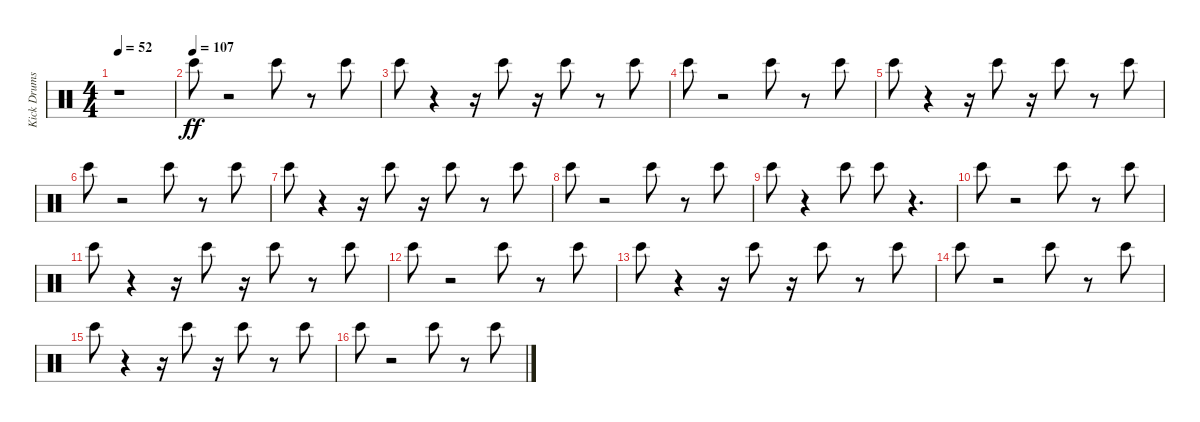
\track ("Kick Drums" "Kick Drums") {instrument percussion}
\staff {score}
\articulation defaults
\ts (4 4)
\tempo 52
\clef neutral
\ks c
r.1{dy ff} |
\tempo (107)
"Bongo High (hit)".8 r.2 "Bongo High (hit)".8 r.8 "Bongo High (hit)".8 |
"Bongo High (hit)".8 r.4 r.16 "Bongo High (hit)".8 r.16 "Bongo High (hit)".8 r.8 "Bongo High (hit)".8 |
"Bongo High (hit)".8 r.2 "Bongo High (hit)".8 r.8 "Bongo High (hit)".8 |
"Bongo High (hit)".8 r.4 r.16 "Bongo High (hit)".8 r.16 "Bongo High (hit)".8 r.8 "Bongo High (hit)".8 |
"Bongo High (hit)".8 r.2 "Bongo High (hit)".8 r.8 "Bongo High (hit)".8 |
"Bongo High (hit)".8 r.4 r.16 "Bongo High (hit)".8 r.16 "Bongo High (hit)".8 r.8 "Bongo High (hit)".8 |
"Bongo High (hit)".8 r.2 "Bongo High (hit)".8 r.8 "Bongo High (hit)".8 |
"Bongo High (hit)".8 r.4 "Bongo High (hit)".8 "Bongo High (hit)".8 r.4{d} |
"Bongo High (hit)".8 r.2 "Bongo High (hit)".8 r.8 "Bongo High (hit)".8 |
"Bongo High (hit)".8 r.4 r.16 "Bongo High (hit)".8 r.16 "Bongo High (hit)".8 r.8 "Bongo High (hit)".8 |
"Bongo High (hit)".8 r.2 "Bongo High (hit)".8 r.8 "Bongo High (hit)".8 |
"Bongo High (hit)".8 r.4 r.16 "Bongo High (hit)".8 r.16 "Bongo High (hit)".8 r.8 "Bongo High (hit)".8 |
"Bongo High (hit)".8 r.2 "Bongo High (hit)".8 r.8 "Bongo High (hit)".8 |
"Bongo High (hit)".8 r.4 r.16 "Bongo High (hit)".8 r.16 "Bongo High (hit)".8 r.8 "Bongo High (hit)".8 |
"Bongo High (hit)".8 r.2 "Bongo High (hit)".8 r.8 "Bongo High (hit)".8
